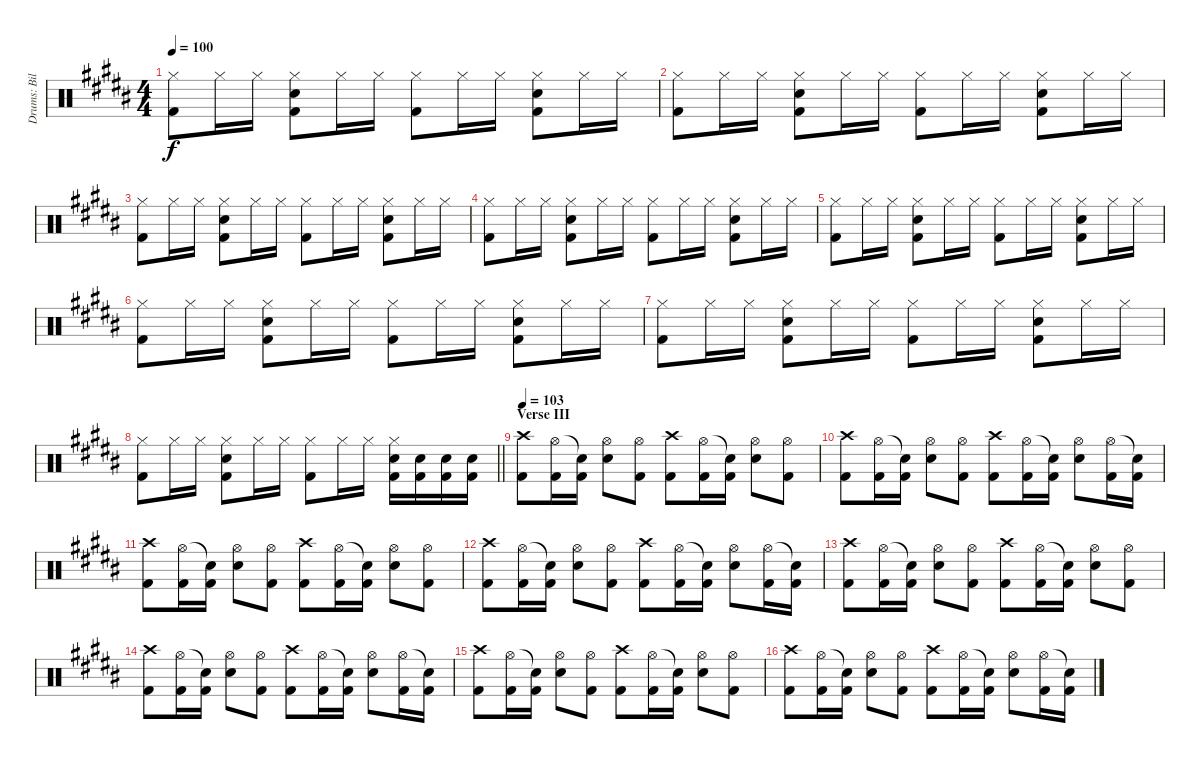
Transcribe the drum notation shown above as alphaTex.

\track ("Drums: Bill" "Drums: Bil") {instrument percussion}
\staff {score}
\articulation defaults
\ts (4 4)
\tempo 100
\clef neutral
\ks b
("Hi-Hat (closed)" "Kick (hit) 2").8{dy f} "Hi-Hat (closed)".16 "Hi-Hat (closed)".16 ("Hi-Hat (closed)" "Electric Snare (hit)" "Kick (hit) 2").8 "Hi-Hat (closed)".16 "Hi-Hat (closed)".16 ("Hi-Hat (closed)" "Kick (hit) 2").8 "Hi-Hat (closed)".16 "Hi-Hat (closed)".16 ("Hi-Hat (closed)" "Electric Snare (hit)" "Kick (hit) 2").8 "Hi-Hat (closed)".16 "Hi-Hat (closed)".16 |
("Hi-Hat (closed)" "Kick (hit) 2").8 "Hi-Hat (closed)".16 "Hi-Hat (closed)".16 ("Hi-Hat (closed)" "Electric Snare (hit)" "Kick (hit) 2").8 "Hi-Hat (closed)".16 "Hi-Hat (closed)".16 ("Hi-Hat (closed)" "Kick (hit) 2").8 "Hi-Hat (closed)".16 "Hi-Hat (closed)".16 ("Hi-Hat (closed)" "Electric Snare (hit)" "Kick (hit) 2").8 "Hi-Hat (closed)".16 "Hi-Hat (closed)".16 |
("Hi-Hat (closed)" "Kick (hit) 2").8 "Hi-Hat (closed)".16 "Hi-Hat (closed)".16 ("Hi-Hat (closed)" "Electric Snare (hit)" "Kick (hit) 2").8 "Hi-Hat (closed)".16 "Hi-Hat (closed)".16 ("Hi-Hat (closed)" "Kick (hit) 2").8 "Hi-Hat (closed)".16 "Hi-Hat (closed)".16 ("Hi-Hat (closed)" "Electric Snare (hit)" "Kick (hit) 2").8 "Hi-Hat (closed)".16 "Hi-Hat (closed)".16 |
("Hi-Hat (closed)" "Kick (hit) 2").8 "Hi-Hat (closed)".16 "Hi-Hat (closed)".16 ("Hi-Hat (closed)" "Electric Snare (hit)" "Kick (hit) 2").8 "Hi-Hat (closed)".16 "Hi-Hat (closed)".16 ("Hi-Hat (closed)" "Kick (hit) 2").8 "Hi-Hat (closed)".16 "Hi-Hat (closed)".16 ("Hi-Hat (closed)" "Electric Snare (hit)" "Kick (hit) 2").8 "Hi-Hat (closed)".16 "Hi-Hat (closed)".16 |
("Hi-Hat (closed)" "Kick (hit) 2").8 "Hi-Hat (closed)".16 "Hi-Hat (closed)".16 ("Hi-Hat (closed)" "Electric Snare (hit)" "Kick (hit) 2").8 "Hi-Hat (closed)".16 "Hi-Hat (closed)".16 ("Hi-Hat (closed)" "Kick (hit) 2").8 "Hi-Hat (closed)".16 "Hi-Hat (closed)".16 ("Hi-Hat (closed)" "Electric Snare (hit)" "Kick (hit) 2").8 "Hi-Hat (closed)".16 "Hi-Hat (closed)".16 |
("Hi-Hat (closed)" "Kick (hit) 2").8 "Hi-Hat (closed)".16 "Hi-Hat (closed)".16 ("Hi-Hat (closed)" "Electric Snare (hit)" "Kick (hit) 2").8 "Hi-Hat (closed)".16 "Hi-Hat (closed)".16 ("Hi-Hat (closed)" "Kick (hit) 2").8 "Hi-Hat (closed)".16 "Hi-Hat (closed)".16 ("Hi-Hat (closed)" "Electric Snare (hit)" "Kick (hit) 2").8 "Hi-Hat (closed)".16 "Hi-Hat (closed)".16 |
("Hi-Hat (closed)" "Kick (hit) 2").8 "Hi-Hat (closed)".16 "Hi-Hat (closed)".16 ("Hi-Hat (closed)" "Electric Snare (hit)" "Kick (hit) 2").8 "Hi-Hat (closed)".16 "Hi-Hat (closed)".16 ("Hi-Hat (closed)" "Kick (hit) 2").8 "Hi-Hat (closed)".16 "Hi-Hat (closed)".16 ("Hi-Hat (closed)" "Electric Snare (hit)" "Kick (hit) 2").8 "Hi-Hat (closed)".16 "Hi-Hat (closed)".16 |
\barLineRight lightlight
("Hi-Hat (closed)" "Kick (hit) 2").8 "Hi-Hat (closed)".16 "Hi-Hat (closed)".16 ("Hi-Hat (closed)" "Electric Snare (hit)" "Kick (hit) 2").8 "Hi-Hat (closed)".16 "Hi-Hat (closed)".16 ("Hi-Hat (closed)" "Kick (hit) 2").8 "Hi-Hat (closed)".16 "Hi-Hat (closed)".16 ("Hi-Hat (closed)" "Electric Snare (hit)" "Kick (hit) 2").16 ("Electric Snare (hit)" "Kick (hit) 2").16 ("Electric Snare (hit)" "Kick (hit) 2").16 ("Electric Snare (hit)" "Kick (hit) 2").16 |
\section ("" "Verse III")
\tempo 103
("Crash high (hit)" "Kick (hit) 2").8 ("Hi-Hat (open)" "Kick (hit) 2").16 ("Snare (hit)"{t} "Kick (hit) 2").16 ("Hi-Hat (open)" "Electric Snare (hit)").8 ("Hi-Hat (open)" "Kick (hit) 2").8 ("Crash high (hit)" "Kick (hit) 2").8 ("Hi-Hat (open)" "Kick (hit) 2").16 ("Snare (hit)"{t} "Kick (hit) 2").16 ("Hi-Hat (open)" "Electric Snare (hit)").8 ("Hi-Hat (open)" "Kick (hit) 2").8 |
("Crash high (hit)" "Kick (hit) 2").8 ("Hi-Hat (open)" "Kick (hit) 2").16 ("Snare (hit)"{t} "Kick (hit) 2").16 ("Hi-Hat (open)" "Electric Snare (hit)").8 ("Hi-Hat (open)" "Kick (hit) 2").8 ("Crash high (hit)" "Kick (hit) 2").8 ("Hi-Hat (open)" "Kick (hit) 2").16 ("Snare (hit)"{t} "Kick (hit) 2").16 ("Hi-Hat (open)" "Electric Snare (hit)").8 ("Hi-Hat (open)" "Kick (hit) 2").16 ("Snare (hit)"{t} "Kick (hit) 2").16 |
("Crash high (hit)" "Kick (hit) 2").8 ("Hi-Hat (open)" "Kick (hit) 2").16 ("Snare (hit)"{t} "Kick (hit) 2").16 ("Hi-Hat (open)" "Electric Snare (hit)").8 ("Hi-Hat (open)" "Kick (hit) 2").8 ("Crash high (hit)" "Kick (hit) 2").8 ("Hi-Hat (open)" "Kick (hit) 2").16 ("Snare (hit)"{t} "Kick (hit) 2").16 ("Hi-Hat (open)" "Electric Snare (hit)").8 ("Hi-Hat (open)" "Kick (hit) 2").8 |
("Crash high (hit)" "Kick (hit) 2").8 ("Hi-Hat (open)" "Kick (hit) 2").16 ("Snare (hit)"{t} "Kick (hit) 2").16 ("Hi-Hat (open)" "Electric Snare (hit)").8 ("Hi-Hat (open)" "Kick (hit) 2").8 ("Crash high (hit)" "Kick (hit) 2").8 ("Hi-Hat (open)" "Kick (hit) 2").16 ("Snare (hit)"{t} "Kick (hit) 2").16 ("Hi-Hat (open)" "Electric Snare (hit)").8 ("Hi-Hat (open)" "Kick (hit) 2").16 ("Snare (hit)"{t} "Kick (hit) 2").16 |
("Crash high (hit)" "Kick (hit) 2").8 ("Hi-Hat (open)" "Kick (hit) 2").16 ("Snare (hit)"{t} "Kick (hit) 2").16 ("Hi-Hat (open)" "Electric Snare (hit)").8 ("Hi-Hat (open)" "Kick (hit) 2").8 ("Crash high (hit)" "Kick (hit) 2").8 ("Hi-Hat (open)" "Kick (hit) 2").16 ("Snare (hit)"{t} "Kick (hit) 2").16 ("Hi-Hat (open)" "Electric Snare (hit)").8 ("Hi-Hat (open)" "Kick (hit) 2").8 |
("Crash high (hit)" "Kick (hit) 2").8 ("Hi-Hat (open)" "Kick (hit) 2").16 ("Snare (hit)"{t} "Kick (hit) 2").16 ("Hi-Hat (open)" "Electric Snare (hit)").8 ("Hi-Hat (open)" "Kick (hit) 2").8 ("Crash high (hit)" "Kick (hit) 2").8 ("Hi-Hat (open)" "Kick (hit) 2").16 ("Snare (hit)"{t} "Kick (hit) 2").16 ("Hi-Hat (open)" "Electric Snare (hit)").8 ("Hi-Hat (open)" "Kick (hit) 2").16 ("Snare (hit)"{t} "Kick (hit) 2").16 |
("Crash high (hit)" "Kick (hit) 2").8 ("Hi-Hat (open)" "Kick (hit) 2").16 ("Snare (hit)"{t} "Kick (hit) 2").16 ("Hi-Hat (open)" "Electric Snare (hit)").8 ("Hi-Hat (open)" "Kick (hit) 2").8 ("Crash high (hit)" "Kick (hit) 2").8 ("Hi-Hat (open)" "Kick (hit) 2").16 ("Snare (hit)"{t} "Kick (hit) 2").16 ("Hi-Hat (open)" "Electric Snare (hit)").8 ("Hi-Hat (open)" "Kick (hit) 2").8 |
("Crash high (hit)" "Kick (hit) 2").8 ("Hi-Hat (open)" "Kick (hit) 2").16 ("Snare (hit)"{t} "Kick (hit) 2").16 ("Hi-Hat (open)" "Electric Snare (hit)").8 ("Hi-Hat (open)" "Kick (hit) 2").8 ("Crash high (hit)" "Kick (hit) 2").8 ("Hi-Hat (open)" "Kick (hit) 2").16 ("Snare (hit)"{t} "Kick (hit) 2").16 ("Hi-Hat (open)" "Electric Snare (hit)").8 ("Hi-Hat (open)" "Kick (hit) 2").16 ("Snare (hit)"{t} "Kick (hit) 2").16
